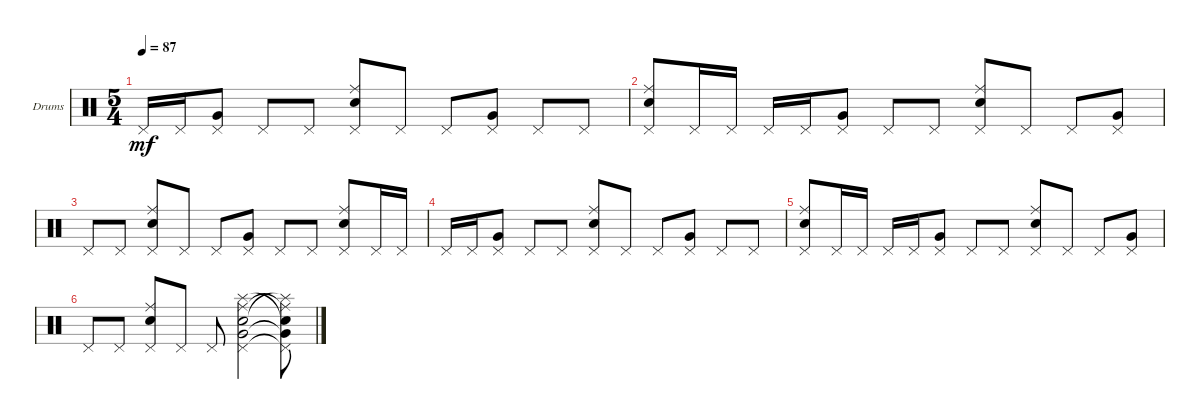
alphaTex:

\defaultSystemsLayout 4
\bracketExtendMode groupsimilarinstruments
\firstSystemTrackNameOrientation horizontal
\otherSystemsTrackNameOrientation horizontal
\track ("Drumkit" "Drums") {instrument percussion}
\staff {score}
\articulation defaults
\ts (5 4)
\tempo 87
\clef neutral
\ks c "Pedal Hi-Hat (hit)".16{dy mf} "Pedal Hi-Hat (hit)".16
("Pedal Hi-Hat (hit)" "Very Low Tom (hit)").8 "Pedal Hi-Hat (hit)".8 "Pedal Hi-Hat (hit)".8 ("Pedal Hi-Hat (hit)" "Snare (hit) 2" "Ride (middle)").8 "Pedal Hi-Hat (hit)".8 "Pedal Hi-Hat (hit)".8 ("Pedal Hi-Hat (hit)" "Very Low Tom (hit)").8 "Pedal Hi-Hat (hit)".8 "Pedal Hi-Hat (hit)".8 |
("Pedal Hi-Hat (hit)" "Snare (hit) 2" "Ride (middle)").8 "Pedal Hi-Hat (hit)".16 "Pedal Hi-Hat (hit)".16 "Pedal Hi-Hat (hit)".16 "Pedal Hi-Hat (hit)".16 ("Pedal Hi-Hat (hit)" "Very Low Tom (hit)").8 "Pedal Hi-Hat (hit)".8 "Pedal Hi-Hat (hit)".8 ("Pedal Hi-Hat (hit)" "Snare (hit) 2" "Ride (middle)").8 "Pedal Hi-Hat (hit)".8 "Pedal Hi-Hat (hit)".8 ("Pedal Hi-Hat (hit)" "Very Low Tom (hit)").8 |
"Pedal Hi-Hat (hit)".8 "Pedal Hi-Hat (hit)".8 ("Pedal Hi-Hat (hit)" "Snare (hit) 2" "Ride (middle)").8 "Pedal Hi-Hat (hit)".8 "Pedal Hi-Hat (hit)".8 ("Pedal Hi-Hat (hit)" "Very Low Tom (hit)").8 "Pedal Hi-Hat (hit)".8 "Pedal Hi-Hat (hit)".8 ("Pedal Hi-Hat (hit)" "Snare (hit) 2" "Ride (middle)").8 "Pedal Hi-Hat (hit)".16 "Pedal Hi-Hat (hit)".16 |
"Pedal Hi-Hat (hit)".16 "Pedal Hi-Hat (hit)".16 ("Pedal Hi-Hat (hit)" "Very Low Tom (hit)").8 "Pedal Hi-Hat (hit)".8 "Pedal Hi-Hat (hit)".8 ("Pedal Hi-Hat (hit)" "Snare (hit) 2" "Ride (middle)").8 "Pedal Hi-Hat (hit)".8 "Pedal Hi-Hat (hit)".8 ("Pedal Hi-Hat (hit)" "Very Low Tom (hit)").8 "Pedal Hi-Hat (hit)".8 "Pedal Hi-Hat (hit)".8 |
("Pedal Hi-Hat (hit)" "Snare (hit) 2" "Ride (middle)").8 "Pedal Hi-Hat (hit)".16 "Pedal Hi-Hat (hit)".16 "Pedal Hi-Hat (hit)".16 "Pedal Hi-Hat (hit)".16 ("Pedal Hi-Hat (hit)" "Very Low Tom (hit)").8 "Pedal Hi-Hat (hit)".8 "Pedal Hi-Hat (hit)".8 ("Pedal Hi-Hat (hit)" "Snare (hit) 2" "Ride (middle)").8 "Pedal Hi-Hat (hit)".8 "Pedal Hi-Hat (hit)".8 ("Pedal Hi-Hat (hit)" "Very Low Tom (hit)").8 |
"Pedal Hi-Hat (hit)".8 "Pedal Hi-Hat (hit)".8 ("Pedal Hi-Hat (hit)" "Snare (hit) 2" "Ride (middle)").8 "Pedal Hi-Hat (hit)".8 "Pedal Hi-Hat (hit)".8 ("Pedal Hi-Hat (hit)" "Very Low Tom (hit)" "Splash (hit)" "Ride (middle)" "Snare (hit) 2").2 ("Pedal Hi-Hat (hit)"{t} "Very Low Tom (hit)"{t} "Snare (hit) 2"{t} "Ride (middle)"{t} "Splash (hit)"{t}).8
